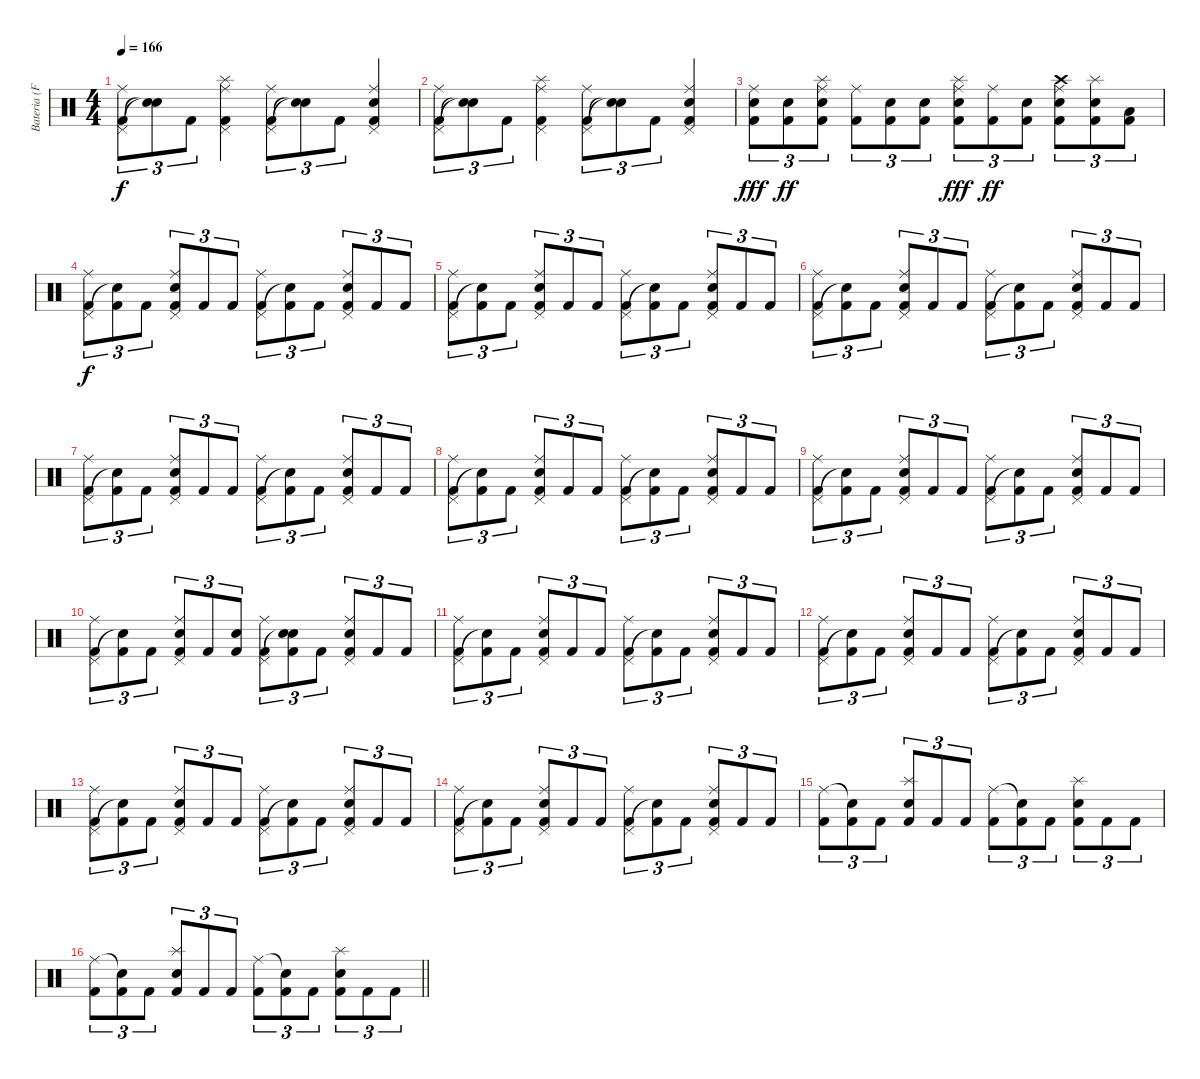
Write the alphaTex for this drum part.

\track ("Bateria (Fernando Scarcella)" "Bateria (F") {instrument percussion}
\staff {score}
\articulation defaults
\ts (4 4)
\tempo 166
\clef neutral
\ks c
("Kick (hit) 2" "Pedal Hi-Hat (hit)" "Ride (middle)").8{tu (3 2) dy f} ("Snare (hit)"{t} "Snare (hit)"{t}).8{tu (3 2)} "Kick (hit) 2".8{tu (3 2)} ("Kick (hit) 2" "Pedal Hi-Hat (hit)" "Splash (hit)" "Ride (middle)").4 ("Kick (hit) 2" "Pedal Hi-Hat (hit)" "Ride (middle)").8{tu (3 2)} ("Snare (hit)"{t} "Snare (hit)"{t}).8{tu (3 2)} "Kick (hit) 2".8{tu (3 2)} ("Kick (hit) 2" "Pedal Hi-Hat (hit)" "Electric Snare (hit)" "Ride (middle)").4 |
("Kick (hit) 2" "Pedal Hi-Hat (hit)" "Ride (middle)").8{tu (3 2)} ("Snare (hit)"{t} "Snare (hit)"{t}).8{tu (3 2)} "Kick (hit) 2".8{tu (3 2)} ("Kick (hit) 2" "Pedal Hi-Hat (hit)" "Splash (hit)" "Ride (middle)").4 ("Kick (hit) 2" "Pedal Hi-Hat (hit)" "Ride (middle)").8{tu (3 2)} ("Snare (hit)"{t} "Snare (hit)"{t}).8{tu (3 2)} "Kick (hit) 2".8{tu (3 2)} ("Kick (hit) 2" "Pedal Hi-Hat (hit)" "Electric Snare (hit)" "Ride (middle)").4 |
("Kick (hit) 2" "Ride (middle)" "Electric Snare (hit)").8{tu (3 2) dy fff} ("Kick (hit) 2" "Electric Snare (hit)").8{tu (3 2) dy ff} ("Kick (hit) 2" "Splash (hit)" "Ride (middle)" "Snare (hit) 2").8{tu (3 2)} ("Kick (hit) 2" "Ride (middle)").8{tu (3 2)} ("Kick (hit) 2" "Electric Snare (hit)").8{tu (3 2)} ("Kick (hit) 2" "Electric Snare (hit)").8{tu (3 2)} ("Kick (hit) 2" "Ride (middle)" "Snare (hit) 2" "Splash (hit)").8{tu (3 2) dy fff} ("Kick (hit) 2" "Ride (middle)").8{tu (3 2) dy ff} ("Kick (hit) 2" "Electric Snare (hit)").8{tu (3 2)} ("Kick (hit) 2" "Crash high (hit)" "Ride (middle)" "Electric Snare (hit)").8{tu (3 2)} ("Kick (hit) 2" "Snare (hit) 2" "Splash (hit)").8{tu (3 2)} ("Kick (hit) 2" "Low Floor Tom (hit)").8{tu (3 2)} |
("Kick (hit) 2" "Pedal Hi-Hat (hit)" "Ride (middle)").8{tu (3 2) dy f} ("Kick (hit) 2" "Snare (hit)"{t}).8{tu (3 2)} "Kick (hit) 2".8{tu (3 2)} ("Kick (hit) 2" "Pedal Hi-Hat (hit)" "Snare (hit) 2" "Ride (middle)").8{tu (3 2)} "Kick (hit) 2".8{tu (3 2)} "Kick (hit) 2".8{tu (3 2)} ("Kick (hit) 2" "Pedal Hi-Hat (hit)" "Ride (middle)").8{tu (3 2)} ("Kick (hit) 2" "Snare (hit)"{t}).8{tu (3 2)} "Kick (hit) 2".8{tu (3 2)} ("Kick (hit) 2" "Pedal Hi-Hat (hit)" "Electric Snare (hit)" "Ride (middle)").8{tu (3 2)} "Kick (hit) 2".8{tu (3 2)} "Kick (hit) 2".8{tu (3 2)} |
("Kick (hit) 2" "Pedal Hi-Hat (hit)" "Ride (middle)").8{tu (3 2)} ("Kick (hit) 2" "Snare (hit)"{t}).8{tu (3 2)} "Kick (hit) 2".8{tu (3 2)} ("Kick (hit) 2" "Pedal Hi-Hat (hit)" "Snare (hit) 2" "Ride (middle)").8{tu (3 2)} "Kick (hit) 2".8{tu (3 2)} "Kick (hit) 2".8{tu (3 2)} ("Kick (hit) 2" "Pedal Hi-Hat (hit)" "Ride (middle)").8{tu (3 2)} ("Kick (hit) 2" "Snare (hit)"{t}).8{tu (3 2)} "Kick (hit) 2".8{tu (3 2)} ("Kick (hit) 2" "Pedal Hi-Hat (hit)" "Electric Snare (hit)" "Ride (middle)").8{tu (3 2)} "Kick (hit) 2".8{tu (3 2)} "Kick (hit) 2".8{tu (3 2)} |
("Kick (hit) 2" "Pedal Hi-Hat (hit)" "Ride (middle)").8{tu (3 2)} ("Kick (hit) 2" "Snare (hit)"{t}).8{tu (3 2)} "Kick (hit) 2".8{tu (3 2)} ("Kick (hit) 2" "Pedal Hi-Hat (hit)" "Snare (hit) 2" "Ride (middle)").8{tu (3 2)} "Kick (hit) 2".8{tu (3 2)} "Kick (hit) 2".8{tu (3 2)} ("Kick (hit) 2" "Pedal Hi-Hat (hit)" "Ride (middle)").8{tu (3 2)} ("Kick (hit) 2" "Snare (hit)"{t}).8{tu (3 2)} "Kick (hit) 2".8{tu (3 2)} ("Kick (hit) 2" "Pedal Hi-Hat (hit)" "Electric Snare (hit)" "Ride (middle)").8{tu (3 2)} "Kick (hit) 2".8{tu (3 2)} "Kick (hit) 2".8{tu (3 2)} |
("Kick (hit) 2" "Pedal Hi-Hat (hit)" "Ride (middle)").8{tu (3 2)} ("Kick (hit) 2" "Snare (hit)"{t}).8{tu (3 2)} "Kick (hit) 2".8{tu (3 2)} ("Kick (hit) 2" "Pedal Hi-Hat (hit)" "Snare (hit) 2" "Ride (middle)").8{tu (3 2)} "Kick (hit) 2".8{tu (3 2)} "Kick (hit) 2".8{tu (3 2)} ("Kick (hit) 2" "Pedal Hi-Hat (hit)" "Ride (middle)").8{tu (3 2)} ("Kick (hit) 2" "Snare (hit)"{t}).8{tu (3 2)} "Kick (hit) 2".8{tu (3 2)} ("Kick (hit) 2" "Pedal Hi-Hat (hit)" "Electric Snare (hit)" "Ride (middle)").8{tu (3 2)} "Kick (hit) 2".8{tu (3 2)} "Kick (hit) 2".8{tu (3 2)} |
("Kick (hit) 2" "Pedal Hi-Hat (hit)" "Ride (middle)").8{tu (3 2)} ("Kick (hit) 2" "Snare (hit)"{t}).8{tu (3 2)} "Kick (hit) 2".8{tu (3 2)} ("Kick (hit) 2" "Pedal Hi-Hat (hit)" "Snare (hit) 2" "Ride (middle)").8{tu (3 2)} "Kick (hit) 2".8{tu (3 2)} "Kick (hit) 2".8{tu (3 2)} ("Kick (hit) 2" "Pedal Hi-Hat (hit)" "Ride (middle)").8{tu (3 2)} ("Kick (hit) 2" "Snare (hit)"{t}).8{tu (3 2)} "Kick (hit) 2".8{tu (3 2)} ("Kick (hit) 2" "Pedal Hi-Hat (hit)" "Electric Snare (hit)" "Ride (middle)").8{tu (3 2)} "Kick (hit) 2".8{tu (3 2)} "Kick (hit) 2".8{tu (3 2)} |
("Kick (hit) 2" "Pedal Hi-Hat (hit)" "Ride (middle)").8{tu (3 2)} ("Kick (hit) 2" "Snare (hit)"{t}).8{tu (3 2)} "Kick (hit) 2".8{tu (3 2)} ("Kick (hit) 2" "Pedal Hi-Hat (hit)" "Snare (hit) 2" "Ride (middle)").8{tu (3 2)} "Kick (hit) 2".8{tu (3 2)} "Kick (hit) 2".8{tu (3 2)} ("Kick (hit) 2" "Pedal Hi-Hat (hit)" "Ride (middle)").8{tu (3 2)} ("Kick (hit) 2" "Snare (hit)"{t}).8{tu (3 2)} "Kick (hit) 2".8{tu (3 2)} ("Kick (hit) 2" "Pedal Hi-Hat (hit)" "Electric Snare (hit)" "Ride (middle)").8{tu (3 2)} "Kick (hit) 2".8{tu (3 2)} "Kick (hit) 2".8{tu (3 2)} |
("Kick (hit) 2" "Pedal Hi-Hat (hit)" "Ride (middle)").8{tu (3 2)} ("Kick (hit) 2" "Snare (hit)"{t}).8{tu (3 2)} "Kick (hit) 2".8{tu (3 2)} ("Kick (hit) 2" "Pedal Hi-Hat (hit)" "Snare (hit) 2" "Ride (middle)").8{tu (3 2)} "Kick (hit) 2".8{tu (3 2)} ("Kick (hit) 2" "Snare (hit) 2").8{tu (3 2)} ("Kick (hit) 2" "Pedal Hi-Hat (hit)" "Ride (middle)").8{tu (3 2)} ("Kick (hit) 2" "Snare (hit)"{t} "Electric Snare (hit)").8{tu (3 2)} "Kick (hit) 2".8{tu (3 2)} ("Kick (hit) 2" "Pedal Hi-Hat (hit)" "Electric Snare (hit)" "Ride (middle)").8{tu (3 2)} "Kick (hit) 2".8{tu (3 2)} "Kick (hit) 2".8{tu (3 2)} |
("Kick (hit) 2" "Pedal Hi-Hat (hit)" "Ride (middle)").8{tu (3 2)} ("Kick (hit) 2" "Snare (hit)"{t}).8{tu (3 2)} "Kick (hit) 2".8{tu (3 2)} ("Kick (hit) 2" "Pedal Hi-Hat (hit)" "Electric Snare (hit)" "Ride (middle)").8{tu (3 2)} "Kick (hit) 2".8{tu (3 2)} "Kick (hit) 2".8{tu (3 2)} ("Kick (hit) 2" "Pedal Hi-Hat (hit)" "Ride (middle)").8{tu (3 2)} ("Kick (hit) 2" "Snare (hit)"{t}).8{tu (3 2)} "Kick (hit) 2".8{tu (3 2)} ("Kick (hit) 2" "Pedal Hi-Hat (hit)" "Snare (hit) 2" "Ride (middle)").8{tu (3 2)} "Kick (hit) 2".8{tu (3 2)} "Kick (hit) 2".8{tu (3 2)} |
("Kick (hit) 2" "Pedal Hi-Hat (hit)" "Ride (middle)").8{tu (3 2)} ("Kick (hit) 2" "Snare (hit)"{t}).8{tu (3 2)} "Kick (hit) 2".8{tu (3 2)} ("Kick (hit) 2" "Pedal Hi-Hat (hit)" "Electric Snare (hit)" "Ride (middle)").8{tu (3 2)} "Kick (hit) 2".8{tu (3 2)} "Kick (hit) 2".8{tu (3 2)} ("Kick (hit) 2" "Pedal Hi-Hat (hit)" "Ride (middle)").8{tu (3 2)} ("Kick (hit) 2" "Snare (hit)"{t}).8{tu (3 2)} "Kick (hit) 2".8{tu (3 2)} ("Kick (hit) 2" "Pedal Hi-Hat (hit)" "Snare (hit) 2" "Ride (middle)").8{tu (3 2)} "Kick (hit) 2".8{tu (3 2)} "Kick (hit) 2".8{tu (3 2)} |
("Kick (hit) 2" "Pedal Hi-Hat (hit)" "Ride (middle)").8{tu (3 2)} ("Kick (hit) 2" "Snare (hit)"{t}).8{tu (3 2)} "Kick (hit) 2".8{tu (3 2)} ("Kick (hit) 2" "Pedal Hi-Hat (hit)" "Electric Snare (hit)" "Ride (middle)").8{tu (3 2)} "Kick (hit) 2".8{tu (3 2)} "Kick (hit) 2".8{tu (3 2)} ("Kick (hit) 2" "Pedal Hi-Hat (hit)" "Ride (middle)").8{tu (3 2)} ("Kick (hit) 2" "Snare (hit)"{t}).8{tu (3 2)} "Kick (hit) 2".8{tu (3 2)} ("Kick (hit) 2" "Pedal Hi-Hat (hit)" "Snare (hit) 2" "Ride (middle)").8{tu (3 2)} "Kick (hit) 2".8{tu (3 2)} "Kick (hit) 2".8{tu (3 2)} |
("Kick (hit) 2" "Pedal Hi-Hat (hit)" "Ride (middle)").8{tu (3 2)} ("Kick (hit) 2" "Snare (hit)"{t}).8{tu (3 2)} "Kick (hit) 2".8{tu (3 2)} ("Kick (hit) 2" "Pedal Hi-Hat (hit)" "Electric Snare (hit)" "Ride (middle)").8{tu (3 2)} "Kick (hit) 2".8{tu (3 2)} "Kick (hit) 2".8{tu (3 2)} ("Kick (hit) 2" "Pedal Hi-Hat (hit)" "Ride (middle)").8{tu (3 2)} ("Kick (hit) 2" "Snare (hit)"{t}).8{tu (3 2)} "Kick (hit) 2".8{tu (3 2)} ("Kick (hit) 2" "Pedal Hi-Hat (hit)" "Snare (hit) 2" "Ride (middle)").8{tu (3 2)} "Kick (hit) 2".8{tu (3 2)} "Kick (hit) 2".8{tu (3 2)} |
("Kick (hit) 2" "Ride (middle)").8{tu (3 2)} ("Kick (hit) 2" "Snare (hit)"{t}).8{tu (3 2)} "Kick (hit) 2".8{tu (3 2)} ("Kick (hit) 2" "Splash (hit)" "Electric Snare (hit)").8{tu (3 2)} "Kick (hit) 2".8{tu (3 2)} "Kick (hit) 2".8{tu (3 2)} ("Kick (hit) 2" "Ride (middle)").8{tu (3 2)} ("Kick (hit) 2" "Snare (hit)"{t}).8{tu (3 2)} "Kick (hit) 2".8{tu (3 2)} ("Kick (hit) 2" "Splash (hit)" "Snare (hit) 2").8{tu (3 2)} "Kick (hit) 2".8{tu (3 2)} "Kick (hit) 2".8{tu (3 2)} |
\barLineRight lightlight
("Kick (hit) 2" "Ride (middle)").8{tu (3 2)} ("Kick (hit) 2" "Snare (hit)"{t}).8{tu (3 2)} "Kick (hit) 2".8{tu (3 2)} ("Kick (hit) 2" "Splash (hit)" "Electric Snare (hit)").8{tu (3 2)} "Kick (hit) 2".8{tu (3 2)} "Kick (hit) 2".8{tu (3 2)} ("Kick (hit) 2" "Ride (middle)").8{tu (3 2)} ("Kick (hit) 2" "Snare (hit)"{t}).8{tu (3 2)} "Kick (hit) 2".8{tu (3 2)} ("Kick (hit) 2" "Splash (hit)" "Snare (hit) 2").8{tu (3 2)} "Kick (hit) 2".8{tu (3 2)} "Kick (hit) 2".8{tu (3 2)}
